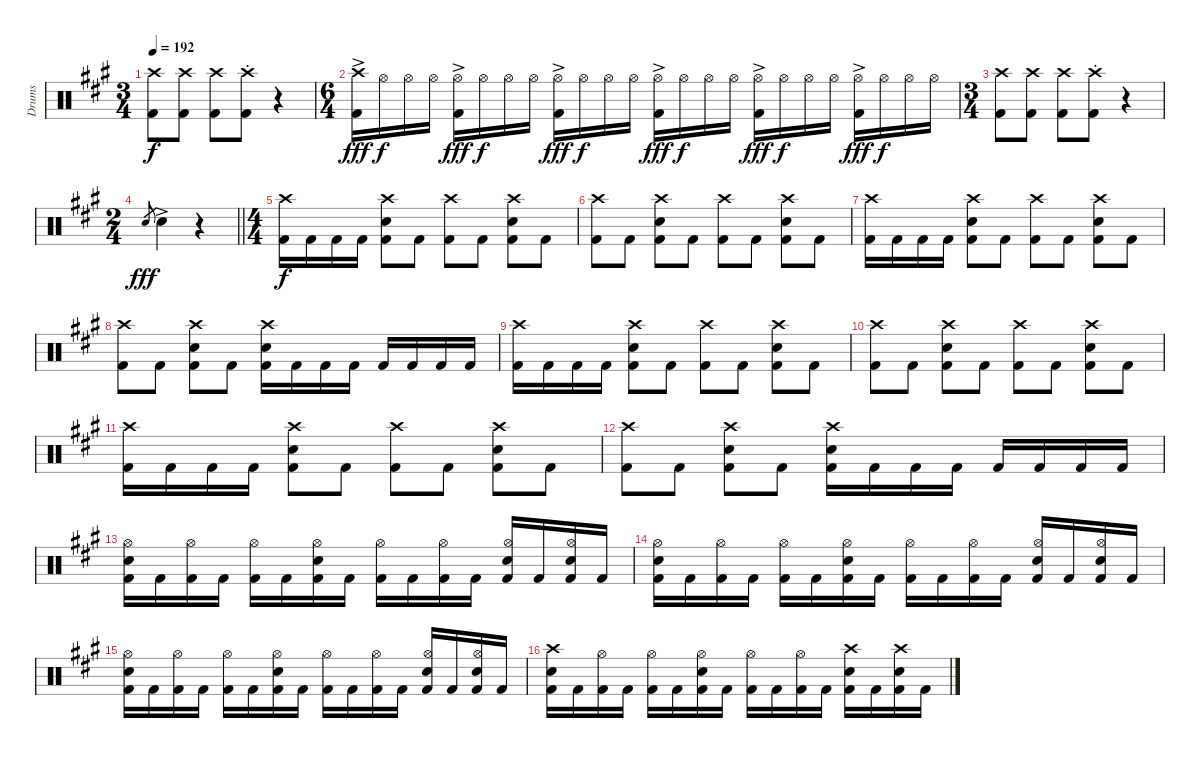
\track ("Drums" "Drums") {instrument percussion}
\staff {score}
\articulation defaults
\ts (3 4)
\tempo 192
\clef neutral
\ks f#minor
("Crash high (hit)" "Kick (hit) 2").8{dy f} ("Crash high (hit)" "Kick (hit) 2").8 ("Crash high (hit)" "Kick (hit) 2").8 ("Crash high (hit)"{st} "Kick (hit) 2").8 r.4 |
\ts (6 4)
("Crash high (hit)"{ac} "Kick (hit) 2"{ac}).16{dy fff} "Hi-Hat (open)".16{dy f} "Hi-Hat (open)".16 "Hi-Hat (open)".16 ("Hi-Hat (open)"{ac} "Kick (hit) 2").16{dy fff} "Hi-Hat (open)".16{dy f} "Hi-Hat (open)".16 "Hi-Hat (open)".16 ("Hi-Hat (open)"{ac} "Kick (hit) 2").16{dy fff} "Hi-Hat (open)".16{dy f} "Hi-Hat (open)".16 "Hi-Hat (open)".16 ("Hi-Hat (open)"{ac} "Kick (hit) 2").16{dy fff} "Hi-Hat (open)".16{dy f} "Hi-Hat (open)".16 "Hi-Hat (open)".16 ("Hi-Hat (open)"{ac} "Kick (hit) 2").16{dy fff} "Hi-Hat (open)".16{dy f} "Hi-Hat (open)".16 "Hi-Hat (open)".16 ("Hi-Hat (open)"{ac} "Kick (hit) 2").16{dy fff} "Hi-Hat (open)".16{dy f} "Hi-Hat (open)".16 "Hi-Hat (open)".16 |
\ts (3 4)
("Crash high (hit)" "Kick (hit) 2").8 ("Crash high (hit)" "Kick (hit) 2").8 ("Crash high (hit)" "Kick (hit) 2").8 ("Crash high (hit)"{st} "Kick (hit) 2").8 r.4 |
\ts (2 4)
\barLineRight lightlight "Snare (hit) 2".8{gr dy fff} "Snare (hit) 2"{ac}.4
r.4 |
\ts (4 4)
("Crash high (hit)" "Kick (hit) 2").16{dy f} "Kick (hit) 2".16 "Kick (hit) 2".16 "Kick (hit) 2".16 ("Crash high (hit)" "Snare (hit) 2" "Kick (hit) 2").8 "Kick (hit) 2".8 ("Crash high (hit)" "Kick (hit) 2").8 "Kick (hit) 2".8 ("Crash high (hit)" "Snare (hit) 2" "Kick (hit) 2").8 "Kick (hit) 2".8 |
("Crash high (hit)" "Kick (hit) 2").8 "Kick (hit) 2".8 ("Crash high (hit)" "Snare (hit) 2" "Kick (hit) 2").8 "Kick (hit) 2".8 ("Crash high (hit)" "Kick (hit) 2").8 "Kick (hit) 2".8 ("Crash high (hit)" "Snare (hit) 2" "Kick (hit) 2").8 "Kick (hit) 2".8 |
("Crash high (hit)" "Kick (hit) 2").16 "Kick (hit) 2".16 "Kick (hit) 2".16 "Kick (hit) 2".16 ("Crash high (hit)" "Snare (hit) 2" "Kick (hit) 2").8 "Kick (hit) 2".8 ("Crash high (hit)" "Kick (hit) 2").8 "Kick (hit) 2".8 ("Crash high (hit)" "Snare (hit) 2" "Kick (hit) 2").8 "Kick (hit) 2".8 |
("Crash high (hit)" "Kick (hit) 2").8 "Kick (hit) 2".8 ("Crash high (hit)" "Snare (hit) 2" "Kick (hit) 2").8 "Kick (hit) 2".8 ("Crash high (hit)" "Snare (hit) 2" "Kick (hit) 2").16 "Kick (hit) 2".16 "Kick (hit) 2".16 "Kick (hit) 2".16 "Kick (hit) 2".16 "Kick (hit) 2".16 "Kick (hit) 2".16 "Kick (hit) 2".16 |
("Crash high (hit)" "Kick (hit) 2").16 "Kick (hit) 2".16 "Kick (hit) 2".16 "Kick (hit) 2".16 ("Crash high (hit)" "Snare (hit) 2" "Kick (hit) 2").8 "Kick (hit) 2".8 ("Crash high (hit)" "Kick (hit) 2").8 "Kick (hit) 2".8 ("Crash high (hit)" "Snare (hit) 2" "Kick (hit) 2").8 "Kick (hit) 2".8 |
("Crash high (hit)" "Kick (hit) 2").8 "Kick (hit) 2".8 ("Crash high (hit)" "Snare (hit) 2" "Kick (hit) 2").8 "Kick (hit) 2".8 ("Crash high (hit)" "Kick (hit) 2").8 "Kick (hit) 2".8 ("Crash high (hit)" "Snare (hit) 2" "Kick (hit) 2").8 "Kick (hit) 2".8 |
("Crash high (hit)" "Kick (hit) 2").16 "Kick (hit) 2".16 "Kick (hit) 2".16 "Kick (hit) 2".16 ("Crash high (hit)" "Snare (hit) 2" "Kick (hit) 2").8 "Kick (hit) 2".8 ("Crash high (hit)" "Kick (hit) 2").8 "Kick (hit) 2".8 ("Crash high (hit)" "Snare (hit) 2" "Kick (hit) 2").8 "Kick (hit) 2".8 |
("Crash high (hit)" "Kick (hit) 2").8 "Kick (hit) 2".8 ("Crash high (hit)" "Snare (hit) 2" "Kick (hit) 2").8 "Kick (hit) 2".8 ("Crash high (hit)" "Snare (hit) 2" "Kick (hit) 2").16 "Kick (hit) 2".16 "Kick (hit) 2".16 "Kick (hit) 2".16 "Kick (hit) 2".16 "Kick (hit) 2".16 "Kick (hit) 2".16 "Kick (hit) 2".16 |
("Hi-Hat (open)" "Snare (hit) 2" "Kick (hit) 2").16 "Kick (hit) 2".16 ("Hi-Hat (open)" "Kick (hit) 2").16 "Kick (hit) 2".16 ("Hi-Hat (open)" "Kick (hit) 2").16 "Kick (hit) 2".16 ("Hi-Hat (open)" "Snare (hit) 2" "Kick (hit) 2").16 "Kick (hit) 2".16 ("Hi-Hat (open)" "Kick (hit) 2").16 "Kick (hit) 2".16 ("Hi-Hat (open)" "Kick (hit) 2").16 "Kick (hit) 2".16 ("Hi-Hat (open)" "Snare (hit) 2" "Kick (hit) 2").16 "Kick (hit) 2".16 ("Hi-Hat (open)" "Snare (hit) 2" "Kick (hit) 2").16 "Kick (hit) 2".16 |
("Hi-Hat (open)" "Snare (hit) 2" "Kick (hit) 2").16 "Kick (hit) 2".16 ("Hi-Hat (open)" "Kick (hit) 2").16 "Kick (hit) 2".16 ("Hi-Hat (open)" "Kick (hit) 2").16 "Kick (hit) 2".16 ("Hi-Hat (open)" "Snare (hit) 2" "Kick (hit) 2").16 "Kick (hit) 2".16 ("Hi-Hat (open)" "Kick (hit) 2").16 "Kick (hit) 2".16 ("Hi-Hat (open)" "Kick (hit) 2").16 "Kick (hit) 2".16 ("Hi-Hat (open)" "Snare (hit) 2" "Kick (hit) 2").16 "Kick (hit) 2".16 ("Hi-Hat (open)" "Snare (hit) 2" "Kick (hit) 2").16 "Kick (hit) 2".16 |
("Hi-Hat (open)" "Snare (hit) 2" "Kick (hit) 2").16 "Kick (hit) 2".16 ("Hi-Hat (open)" "Kick (hit) 2").16 "Kick (hit) 2".16 ("Hi-Hat (open)" "Kick (hit) 2").16 "Kick (hit) 2".16 ("Hi-Hat (open)" "Snare (hit) 2" "Kick (hit) 2").16 "Kick (hit) 2".16 ("Hi-Hat (open)" "Kick (hit) 2").16 "Kick (hit) 2".16 ("Hi-Hat (open)" "Kick (hit) 2").16 "Kick (hit) 2".16 ("Hi-Hat (open)" "Snare (hit) 2" "Kick (hit) 2").16 "Kick (hit) 2".16 ("Hi-Hat (open)" "Snare (hit) 2" "Kick (hit) 2").16 "Kick (hit) 2".16 |
("Crash high (hit)" "Snare (hit) 2" "Kick (hit) 2").16 "Kick (hit) 2".16 ("Hi-Hat (open)" "Kick (hit) 2").16 "Kick (hit) 2".16 ("Hi-Hat (open)" "Kick (hit) 2").16 "Kick (hit) 2".16 ("Hi-Hat (open)" "Snare (hit) 2" "Kick (hit) 2").16 "Kick (hit) 2".16 ("Hi-Hat (open)" "Kick (hit) 2").16 "Kick (hit) 2".16 ("Hi-Hat (open)" "Kick (hit) 2").16 "Kick (hit) 2".16 ("Crash high (hit)" "Snare (hit) 2" "Kick (hit) 2").16 "Kick (hit) 2".16 ("Crash high (hit)" "Snare (hit) 2" "Kick (hit) 2").16 "Kick (hit) 2".16
